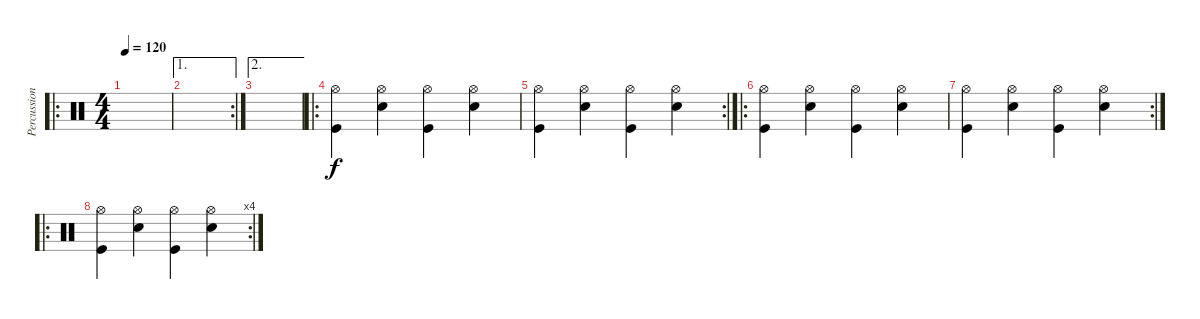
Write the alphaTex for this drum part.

\track ("Percussion" "Percussion") {instrument percussion}
\staff {score}
\articulation defaults
\ro
\ts (4 4)
\tempo 120
\clef neutral
\ks c
|
\ae 1
\rc 2
|
\ae 2
|
\ro
("Hi-Hat (open)" "Kick (hit)").4 ("Hi-Hat (open)" "Snare (hit) 2").4 ("Hi-Hat (open)" "Kick (hit)").4 ("Hi-Hat (open)" "Snare (hit) 2").4 |
\rc 2
("Hi-Hat (open)" "Kick (hit)").4 ("Hi-Hat (open)" "Snare (hit) 2").4 ("Hi-Hat (open)" "Kick (hit)").4 ("Hi-Hat (open)" "Snare (hit) 2").4 |
\ro
("Hi-Hat (open)" "Kick (hit)").4 ("Hi-Hat (open)" "Snare (hit) 2").4 ("Hi-Hat (open)" "Kick (hit)").4 ("Hi-Hat (open)" "Snare (hit) 2").4 |
\rc 2
("Hi-Hat (open)" "Kick (hit)").4 ("Hi-Hat (open)" "Snare (hit) 2").4 ("Hi-Hat (open)" "Kick (hit)").4 ("Hi-Hat (open)" "Snare (hit) 2").4 |
\ro
\rc 4
("Hi-Hat (open)" "Kick (hit)").4 ("Hi-Hat (open)" "Snare (hit) 2").4 ("Hi-Hat (open)" "Kick (hit)").4 ("Hi-Hat (open)" "Snare (hit) 2").4
